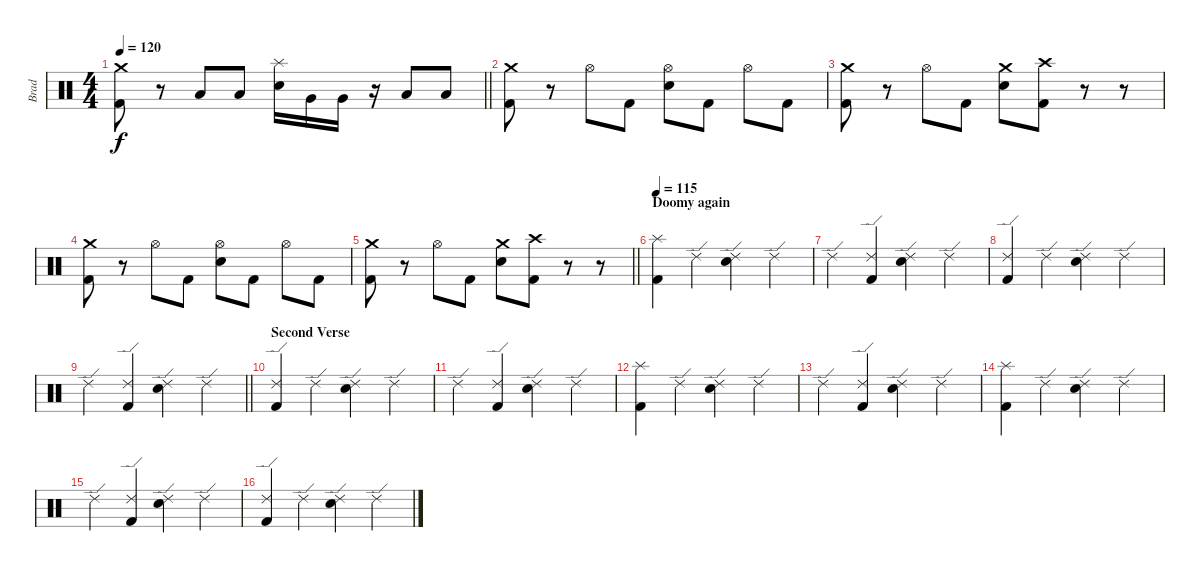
\track ("Brad" "Brad") {instrument percussion}
\staff {score}
\articulation defaults
\ts (4 4)
\tempo 120
\clef neutral
\barLineRight lightlight
\ks c
("Crash medium (hit)" "Kick (hit) 2").8{dy f} r.8 "Low Tom (hit)".8 "Low Tom (hit)".8 ("Splash (hit)" "Electric Snare (hit)").16 "Very Low Tom (hit)".16 "Very Low Tom (hit)".16 r.16 "Low Tom (hit)".8 "Low Tom (hit)".8 |
("Crash medium (hit)" "Kick (hit) 2").8 r.8 "Hi-Hat (open)".8 "Kick (hit) 2".8 ("Hi-Hat (open)" "Electric Snare (hit)").8 "Kick (hit) 2".8 "Hi-Hat (open)".8 "Kick (hit) 2".8 |
("Crash medium (hit)" "Kick (hit) 2").8 r.8 "Hi-Hat (open)".8 "Kick (hit) 2".8 ("Crash medium (hit)" "Electric Snare (hit)").8 ("Crash high (hit)" "Kick (hit) 2").8 r.8 r.8 |
("Crash medium (hit)" "Kick (hit) 2").8 r.8 "Hi-Hat (open)".8 "Kick (hit) 2".8 ("Hi-Hat (open)" "Electric Snare (hit)").8 "Kick (hit) 2".8 "Hi-Hat (open)".8 "Kick (hit) 2".8 |
\barLineRight lightlight
("Crash medium (hit)" "Kick (hit) 2").8 r.8 "Hi-Hat (open)".8 "Kick (hit) 2".8 ("Crash medium (hit)" "Electric Snare (hit)").8 ("Crash high (hit)" "Kick (hit) 2").8 r.8 r.8 |
\section ("" "Doomy again")
\tempo 115
("Splash (hit)" "Kick (hit) 2").4 "Ride (edge) 2".4 ("Ride (edge) 2" "Electric Snare (hit)").4 "Ride (edge) 2".4 |
"Ride (edge) 2".4 ("Ride (edge) 2" "Kick (hit) 2").4 ("Ride (edge) 2" "Electric Snare (hit)").4 "Ride (edge) 2".4 |
("Ride (edge) 2" "Kick (hit) 2").4 "Ride (edge) 2".4 ("Ride (edge) 2" "Electric Snare (hit)").4 "Ride (edge) 2".4 |
\barLineRight lightlight "Ride (edge) 2".4
("Ride (edge) 2" "Kick (hit) 2").4 ("Ride (edge) 2" "Electric Snare (hit)").4 "Ride (edge) 2".4 |
\section ("" "Second Verse")
("Ride (edge) 2" "Kick (hit) 2").4 "Ride (edge) 2".4 ("Ride (edge) 2" "Electric Snare (hit)").4 "Ride (edge) 2".4 |
"Ride (edge) 2".4 ("Ride (edge) 2" "Kick (hit) 2").4 ("Ride (edge) 2" "Electric Snare (hit)").4 "Ride (edge) 2".4 |
("Splash (hit)" "Kick (hit) 2").4 "Ride (edge) 2".4 ("Ride (edge) 2" "Electric Snare (hit)").4 "Ride (edge) 2".4 |
"Ride (edge) 2".4 ("Ride (edge) 2" "Kick (hit) 2").4 ("Ride (edge) 2" "Electric Snare (hit)").4 "Ride (edge) 2".4 |
("Splash (hit)" "Kick (hit) 2").4 "Ride (edge) 2".4 ("Ride (edge) 2" "Electric Snare (hit)").4 "Ride (edge) 2".4 |
"Ride (edge) 2".4 ("Ride (edge) 2" "Kick (hit) 2").4 ("Ride (edge) 2" "Electric Snare (hit)").4 "Ride (edge) 2".4 |
("Ride (edge) 2" "Kick (hit) 2").4 "Ride (edge) 2".4 ("Ride (edge) 2" "Electric Snare (hit)").4 "Ride (edge) 2".4
